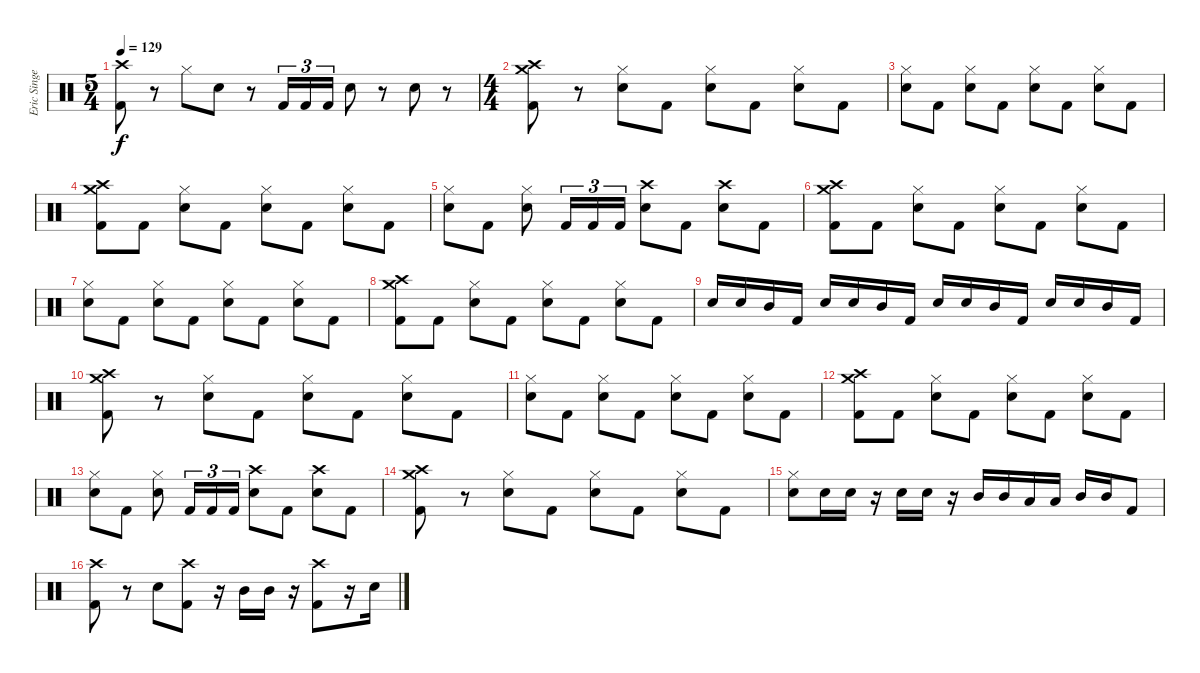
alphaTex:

\track ("Eric Singer" "Eric Singe") {instrument percussion}
\staff {score}
\articulation defaults
\ts (5 4)
\tempo 129
\clef neutral
\ks c
("Crash high (hit)" "Kick (hit) 2").8{dy f} r.8 "Hi-Hat (closed)".8 "Electric Snare (hit)".8 r.8 "Kick (hit) 2".16{tu (3 2)} "Kick (hit) 2".16{tu (3 2)} "Kick (hit) 2".16{tu (3 2)} "Electric Snare (hit)".8 r.8 "Electric Snare (hit)".8 r.8 |
\ts (4 4)
("Crash high (hit)" "Crash medium (hit)" "Kick (hit) 2").8 r.8 ("Hi-Hat (closed)" "Electric Snare (hit)").8 "Kick (hit) 2".8 ("Hi-Hat (closed)" "Electric Snare (hit)").8 "Kick (hit) 2".8 ("Hi-Hat (closed)" "Electric Snare (hit)").8 "Kick (hit) 2".8 |
("Hi-Hat (closed)" "Electric Snare (hit)").8 "Kick (hit) 2".8 ("Hi-Hat (closed)" "Electric Snare (hit)").8 "Kick (hit) 2".8 ("Hi-Hat (closed)" "Electric Snare (hit)").8 "Kick (hit) 2".8 ("Hi-Hat (closed)" "Electric Snare (hit)").8 "Kick (hit) 2".8 |
("Crash high (hit)" "Crash medium (hit)" "Kick (hit) 2").8 "Kick (hit) 2".8 ("Hi-Hat (closed)" "Electric Snare (hit)").8 "Kick (hit) 2".8 ("Hi-Hat (closed)" "Electric Snare (hit)").8 "Kick (hit) 2".8 ("Hi-Hat (closed)" "Electric Snare (hit)").8 "Kick (hit) 2".8 |
("Hi-Hat (closed)" "Electric Snare (hit)").8 "Kick (hit) 2".8 ("Hi-Hat (closed)" "Electric Snare (hit)").8 "Kick (hit) 2".16{tu (3 2)} "Kick (hit) 2".16{tu (3 2)} "Kick (hit) 2".16{tu (3 2)} ("Crash high (hit)" "Electric Snare (hit)").8 "Kick (hit) 2".8 ("Crash high (hit)" "Electric Snare (hit)").8 "Kick (hit) 2".8 |
("Crash high (hit)" "Crash medium (hit)" "Kick (hit) 2").8 "Kick (hit) 2".8 ("Hi-Hat (closed)" "Electric Snare (hit)").8 "Kick (hit) 2".8 ("Hi-Hat (closed)" "Electric Snare (hit)").8 "Kick (hit) 2".8 ("Hi-Hat (closed)" "Electric Snare (hit)").8 "Kick (hit) 2".8 |
("Hi-Hat (closed)" "Electric Snare (hit)").8 "Kick (hit) 2".8 ("Hi-Hat (closed)" "Electric Snare (hit)").8 "Kick (hit) 2".8 ("Hi-Hat (closed)" "Electric Snare (hit)").8 "Kick (hit) 2".8 ("Hi-Hat (closed)" "Electric Snare (hit)").8 "Kick (hit) 2".8 |
("Crash high (hit)" "Crash medium (hit)" "Kick (hit) 2").8 "Kick (hit) 2".8 ("Hi-Hat (closed)" "Electric Snare (hit)").8 "Kick (hit) 2".8 ("Hi-Hat (closed)" "Electric Snare (hit)").8 "Kick (hit) 2".8 ("Hi-Hat (closed)" "Electric Snare (hit)").8 "Kick (hit) 2".8 |
"Electric Snare (hit)".16 "Electric Snare (hit)".16 "Mid Tom (hit)".16 "Kick (hit) 2".16 "Electric Snare (hit)".16 "Electric Snare (hit)".16 "Mid Tom (hit)".16 "Kick (hit) 2".16 "Electric Snare (hit)".16 "Electric Snare (hit)".16 "Mid Tom (hit)".16 "Kick (hit) 2".16 "Electric Snare (hit)".16 "Electric Snare (hit)".16 "Mid Tom (hit)".16 "Kick (hit) 2".16 |
("Crash high (hit)" "Crash medium (hit)" "Kick (hit) 2").8 r.8 ("Hi-Hat (closed)" "Electric Snare (hit)").8 "Kick (hit) 2".8 ("Hi-Hat (closed)" "Electric Snare (hit)").8 "Kick (hit) 2".8 ("Hi-Hat (closed)" "Electric Snare (hit)").8 "Kick (hit) 2".8 |
("Hi-Hat (closed)" "Electric Snare (hit)").8 "Kick (hit) 2".8 ("Hi-Hat (closed)" "Electric Snare (hit)").8 "Kick (hit) 2".8 ("Hi-Hat (closed)" "Electric Snare (hit)").8 "Kick (hit) 2".8 ("Hi-Hat (closed)" "Electric Snare (hit)").8 "Kick (hit) 2".8 |
("Crash high (hit)" "Crash medium (hit)" "Kick (hit) 2").8 "Kick (hit) 2".8 ("Hi-Hat (closed)" "Electric Snare (hit)").8 "Kick (hit) 2".8 ("Hi-Hat (closed)" "Electric Snare (hit)").8 "Kick (hit) 2".8 ("Hi-Hat (closed)" "Electric Snare (hit)").8 "Kick (hit) 2".8 |
("Hi-Hat (closed)" "Electric Snare (hit)").8 "Kick (hit) 2".8 ("Hi-Hat (closed)" "Electric Snare (hit)").8 "Kick (hit) 2".16{tu (3 2)} "Kick (hit) 2".16{tu (3 2)} "Kick (hit) 2".16{tu (3 2)} ("Crash high (hit)" "Electric Snare (hit)").8 "Kick (hit) 2".8 ("Crash high (hit)" "Electric Snare (hit)").8 "Kick (hit) 2".8 |
("Crash high (hit)" "Crash medium (hit)" "Kick (hit) 2").8 r.8 ("Hi-Hat (closed)" "Electric Snare (hit)").8 "Kick (hit) 2".8 ("Hi-Hat (closed)" "Electric Snare (hit)").8 "Kick (hit) 2".8 ("Hi-Hat (closed)" "Electric Snare (hit)").8 "Kick (hit) 2".8 |
("Hi-Hat (closed)" "Electric Snare (hit)").8 "Electric Snare (hit)".16 "Electric Snare (hit)".16 r.16 "Electric Snare (hit)".16 "Electric Snare (hit)".16 r.16 "Mid Tom (hit)".16 "Mid Tom (hit)".16 "Low Tom (hit)".16 "Low Tom (hit)".16 "Mid Tom (hit)".16 "Mid Tom (hit)".16 "Kick (hit) 2".8 |
("Crash high (hit)" "Kick (hit) 2").8 r.8 "Electric Snare (hit)".8 ("Crash high (hit)" "Kick (hit) 2").8 r.16 "Mid Tom (hit)".16 "Mid Tom (hit)".16 r.16 ("Crash high (hit)" "Kick (hit) 2").8 r.16 "Electric Snare (hit)".16
